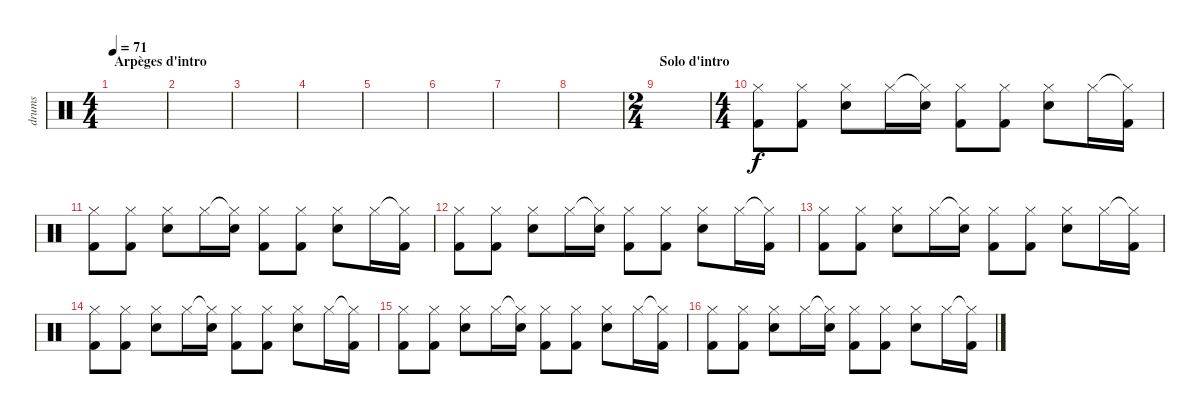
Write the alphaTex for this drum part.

\track ("drums" "drums") {instrument percussion}
\staff {score}
\articulation defaults
\ts (4 4)
\section ("" "Arpèges d'intro")
\tempo 71
\clef neutral
\ks c
|
|
|
|
|
|
|
|
\ts (2 4)
\section ("" "Solo d'intro")
|
\ts (4 4)
("Hi-Hat (closed)" "Kick (hit) 2").8 ("Hi-Hat (closed)" "Kick (hit) 2").8 ("Hi-Hat (closed)" "Snare (hit) 2").8 "Hi-Hat (closed)".16 ("Hi-Hat (closed)"{t} "Snare (hit) 2").16 ("Hi-Hat (closed)" "Kick (hit) 2").8 ("Hi-Hat (closed)" "Kick (hit) 2").8 ("Hi-Hat (closed)" "Snare (hit) 2").8 "Hi-Hat (closed)".16 ("Hi-Hat (closed)"{t} "Kick (hit) 2").16 |
("Hi-Hat (closed)" "Kick (hit) 2").8 ("Hi-Hat (closed)" "Kick (hit) 2").8 ("Hi-Hat (closed)" "Snare (hit) 2").8 "Hi-Hat (closed)".16 ("Hi-Hat (closed)"{t} "Snare (hit) 2").16 ("Hi-Hat (closed)" "Kick (hit) 2").8 ("Hi-Hat (closed)" "Kick (hit) 2").8 ("Hi-Hat (closed)" "Snare (hit) 2").8 "Hi-Hat (closed)".16 ("Hi-Hat (closed)"{t} "Kick (hit) 2").16 |
("Hi-Hat (closed)" "Kick (hit) 2").8 ("Hi-Hat (closed)" "Kick (hit) 2").8 ("Hi-Hat (closed)" "Snare (hit) 2").8 "Hi-Hat (closed)".16 ("Hi-Hat (closed)"{t} "Snare (hit) 2").16 ("Hi-Hat (closed)" "Kick (hit) 2").8 ("Hi-Hat (closed)" "Kick (hit) 2").8 ("Hi-Hat (closed)" "Snare (hit) 2").8 "Hi-Hat (closed)".16 ("Hi-Hat (closed)"{t} "Kick (hit) 2").16 |
("Hi-Hat (closed)" "Kick (hit) 2").8 ("Hi-Hat (closed)" "Kick (hit) 2").8 ("Hi-Hat (closed)" "Snare (hit) 2").8 "Hi-Hat (closed)".16 ("Hi-Hat (closed)"{t} "Snare (hit) 2").16 ("Hi-Hat (closed)" "Kick (hit) 2").8 ("Hi-Hat (closed)" "Kick (hit) 2").8 ("Hi-Hat (closed)" "Snare (hit) 2").8 "Hi-Hat (closed)".16 ("Hi-Hat (closed)"{t} "Kick (hit) 2").16 |
("Hi-Hat (closed)" "Kick (hit) 2").8 ("Hi-Hat (closed)" "Kick (hit) 2").8 ("Hi-Hat (closed)" "Snare (hit) 2").8 "Hi-Hat (closed)".16 ("Hi-Hat (closed)"{t} "Snare (hit) 2").16 ("Hi-Hat (closed)" "Kick (hit) 2").8 ("Hi-Hat (closed)" "Kick (hit) 2").8 ("Hi-Hat (closed)" "Snare (hit) 2").8 "Hi-Hat (closed)".16 ("Hi-Hat (closed)"{t} "Kick (hit) 2").16 |
("Hi-Hat (closed)" "Kick (hit) 2").8 ("Hi-Hat (closed)" "Kick (hit) 2").8 ("Hi-Hat (closed)" "Snare (hit) 2").8 "Hi-Hat (closed)".16 ("Hi-Hat (closed)"{t} "Snare (hit) 2").16 ("Hi-Hat (closed)" "Kick (hit) 2").8 ("Hi-Hat (closed)" "Kick (hit) 2").8 ("Hi-Hat (closed)" "Snare (hit) 2").8 "Hi-Hat (closed)".16 ("Hi-Hat (closed)"{t} "Kick (hit) 2").16 |
("Hi-Hat (closed)" "Kick (hit) 2").8 ("Hi-Hat (closed)" "Kick (hit) 2").8 ("Hi-Hat (closed)" "Snare (hit) 2").8 "Hi-Hat (closed)".16 ("Hi-Hat (closed)"{t} "Snare (hit) 2").16 ("Hi-Hat (closed)" "Kick (hit) 2").8 ("Hi-Hat (closed)" "Kick (hit) 2").8 ("Hi-Hat (closed)" "Snare (hit) 2").8 "Hi-Hat (closed)".16 ("Hi-Hat (closed)"{t} "Kick (hit) 2").16
